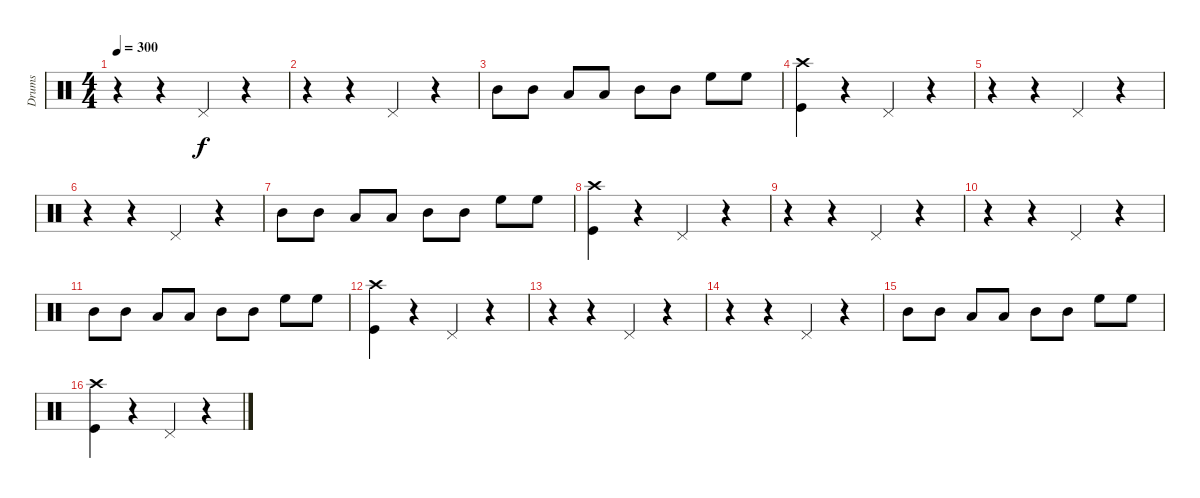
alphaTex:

\track ("Drums" "Drums") {instrument percussion}
\staff {score}
\articulation defaults
\ts (4 4)
\tempo 300
\clef neutral
\ks c
r.4{dy f} r.4 "Pedal Hi-Hat (hit)".4 r.4 |
r.4 r.4 "Pedal Hi-Hat (hit)".4 r.4 |
"Mid Tom (hit)".8 "Mid Tom (hit)".8 "Low Tom (hit)".8 "Low Tom (hit)".8 "Mid Tom (hit)".8 "Mid Tom (hit)".8 "High Floor Tom (hit)".8 "High Floor Tom (hit)".8 |
("Crash high (hit)" "Kick (hit)").4 r.4 "Pedal Hi-Hat (hit)".4 r.4 |
r.4 r.4 "Pedal Hi-Hat (hit)".4 r.4 |
r.4 r.4 "Pedal Hi-Hat (hit)".4 r.4 |
"Mid Tom (hit)".8 "Mid Tom (hit)".8 "Low Tom (hit)".8 "Low Tom (hit)".8 "Mid Tom (hit)".8 "Mid Tom (hit)".8 "High Floor Tom (hit)".8 "High Floor Tom (hit)".8 |
("Crash high (hit)" "Kick (hit)").4 r.4 "Pedal Hi-Hat (hit)".4 r.4 |
r.4 r.4 "Pedal Hi-Hat (hit)".4 r.4 |
r.4 r.4 "Pedal Hi-Hat (hit)".4 r.4 |
"Mid Tom (hit)".8 "Mid Tom (hit)".8 "Low Tom (hit)".8 "Low Tom (hit)".8 "Mid Tom (hit)".8 "Mid Tom (hit)".8 "High Floor Tom (hit)".8 "High Floor Tom (hit)".8 |
("Crash high (hit)" "Kick (hit)").4 r.4 "Pedal Hi-Hat (hit)".4 r.4 |
r.4 r.4 "Pedal Hi-Hat (hit)".4 r.4 |
r.4 r.4 "Pedal Hi-Hat (hit)".4 r.4 |
"Mid Tom (hit)".8 "Mid Tom (hit)".8 "Low Tom (hit)".8 "Low Tom (hit)".8 "Mid Tom (hit)".8 "Mid Tom (hit)".8 "High Floor Tom (hit)".8 "High Floor Tom (hit)".8 |
("Crash high (hit)" "Kick (hit)").4 r.4 "Pedal Hi-Hat (hit)".4 r.4
